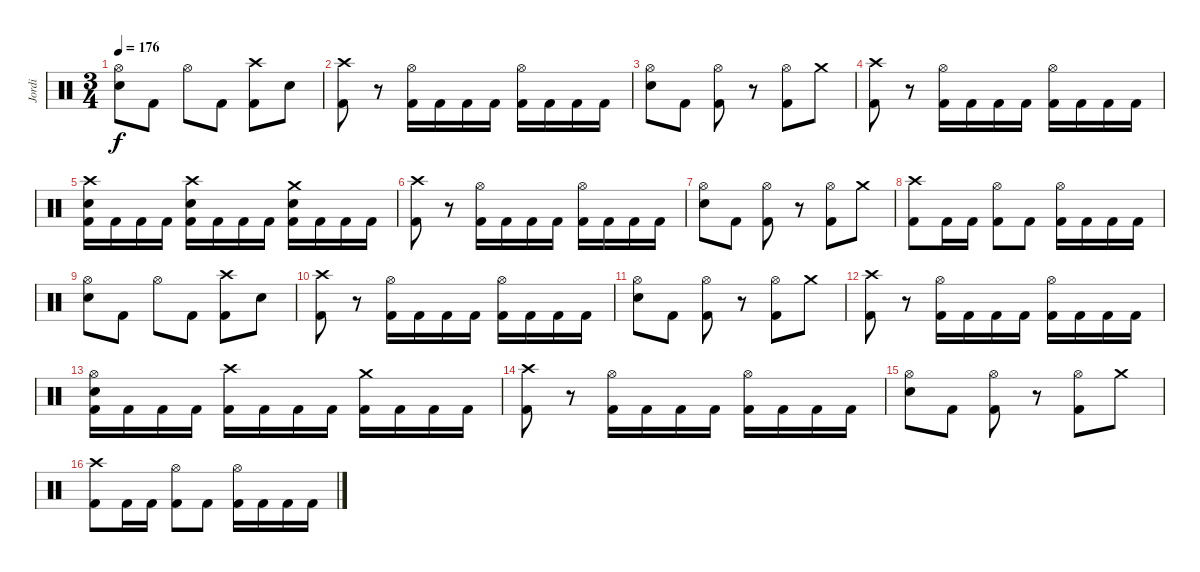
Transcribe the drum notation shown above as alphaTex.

\track ("Jordi" "Jordi") {instrument percussion}
\staff {score}
\articulation defaults
\ts (3 4)
\tempo 176
\clef neutral
\ks c
("Hi-Hat (open)" "Snare (hit) 2").8{dy f} "Kick (hit) 2".8 "Hi-Hat (open)".8 "Kick (hit) 2".8 ("Crash high (hit)" "Kick (hit) 2").8 "Snare (hit) 2".8 |
("Crash high (hit)" "Kick (hit) 2").8 r.8 ("Hi-Hat (open)" "Kick (hit) 2").16 "Kick (hit) 2".16 "Kick (hit) 2".16 "Kick (hit) 2".16 ("Hi-Hat (open)" "Kick (hit) 2").16 "Kick (hit) 2".16 "Kick (hit) 2".16 "Kick (hit) 2".16 |
("Hi-Hat (open)" "Snare (hit) 2").8 "Kick (hit) 2".8 ("Hi-Hat (open)" "Kick (hit) 2").8 r.8 ("Hi-Hat (open)" "Kick (hit) 2").8 "Crash medium (hit)".8 |
("Crash high (hit)" "Kick (hit) 2").8 r.8 ("Hi-Hat (open)" "Kick (hit) 2").16 "Kick (hit) 2".16 "Kick (hit) 2".16 "Kick (hit) 2".16 ("Hi-Hat (open)" "Kick (hit) 2").16 "Kick (hit) 2".16 "Kick (hit) 2".16 "Kick (hit) 2".16 |
("Crash high (hit)" "Snare (hit) 2" "Kick (hit) 2").16 "Kick (hit) 2".16 "Kick (hit) 2".16 "Kick (hit) 2".16 ("Crash high (hit)" "Snare (hit) 2" "Kick (hit) 2").16 "Kick (hit) 2".16 "Kick (hit) 2".16 "Kick (hit) 2".16 ("Crash medium (hit)" "Snare (hit) 2" "Kick (hit) 2").16 "Kick (hit) 2".16 "Kick (hit) 2".16 "Kick (hit) 2".16 |
("Crash high (hit)" "Kick (hit) 2").8 r.8 ("Hi-Hat (open)" "Kick (hit) 2").16 "Kick (hit) 2".16 "Kick (hit) 2".16 "Kick (hit) 2".16 ("Hi-Hat (open)" "Kick (hit) 2").16 "Kick (hit) 2".16 "Kick (hit) 2".16 "Kick (hit) 2".16 |
("Hi-Hat (open)" "Snare (hit) 2").8 "Kick (hit) 2".8 ("Hi-Hat (open)" "Kick (hit) 2").8 r.8 ("Hi-Hat (open)" "Kick (hit) 2").8 "Crash medium (hit)".8 |
("Crash high (hit)" "Kick (hit) 2").8 "Kick (hit) 2".16 "Kick (hit) 2".16 ("Hi-Hat (open)" "Kick (hit) 2").8 "Kick (hit) 2".8 ("Hi-Hat (open)" "Kick (hit) 2").16 "Kick (hit) 2".16 "Kick (hit) 2".16 "Kick (hit) 2".16 |
("Hi-Hat (open)" "Snare (hit) 2").8 "Kick (hit) 2".8 "Hi-Hat (open)".8 "Kick (hit) 2".8 ("Crash high (hit)" "Kick (hit) 2").8 "Snare (hit) 2".8 |
("Crash high (hit)" "Kick (hit) 2").8 r.8 ("Hi-Hat (open)" "Kick (hit) 2").16 "Kick (hit) 2".16 "Kick (hit) 2".16 "Kick (hit) 2".16 ("Hi-Hat (open)" "Kick (hit) 2").16 "Kick (hit) 2".16 "Kick (hit) 2".16 "Kick (hit) 2".16 |
("Hi-Hat (open)" "Snare (hit) 2").8 "Kick (hit) 2".8 ("Hi-Hat (open)" "Kick (hit) 2").8 r.8 ("Hi-Hat (open)" "Kick (hit) 2").8 "Crash medium (hit)".8 |
("Crash high (hit)" "Kick (hit) 2").8 r.8 ("Hi-Hat (open)" "Kick (hit) 2").16 "Kick (hit) 2".16 "Kick (hit) 2".16 "Kick (hit) 2".16 ("Hi-Hat (open)" "Kick (hit) 2").16 "Kick (hit) 2".16 "Kick (hit) 2".16 "Kick (hit) 2".16 |
("Hi-Hat (open)" "Snare (hit) 2" "Kick (hit) 2").16 "Kick (hit) 2".16 "Kick (hit) 2".16 "Kick (hit) 2".16 ("Crash high (hit)" "Kick (hit) 2").16 "Kick (hit) 2".16 "Kick (hit) 2".16 "Kick (hit) 2".16 ("Crash medium (hit)" "Kick (hit) 2").16 "Kick (hit) 2".16 "Kick (hit) 2".16 "Kick (hit) 2".16 |
("Crash high (hit)" "Kick (hit) 2").8 r.8 ("Hi-Hat (open)" "Kick (hit) 2").16 "Kick (hit) 2".16 "Kick (hit) 2".16 "Kick (hit) 2".16 ("Hi-Hat (open)" "Kick (hit) 2").16 "Kick (hit) 2".16 "Kick (hit) 2".16 "Kick (hit) 2".16 |
("Hi-Hat (open)" "Snare (hit) 2").8 "Kick (hit) 2".8 ("Hi-Hat (open)" "Kick (hit) 2").8 r.8 ("Hi-Hat (open)" "Kick (hit) 2").8 "Crash medium (hit)".8 |
("Crash high (hit)" "Kick (hit) 2").8 "Kick (hit) 2".16 "Kick (hit) 2".16 ("Hi-Hat (open)" "Kick (hit) 2").8 "Kick (hit) 2".8 ("Hi-Hat (open)" "Kick (hit) 2").16 "Kick (hit) 2".16 "Kick (hit) 2".16 "Kick (hit) 2".16
